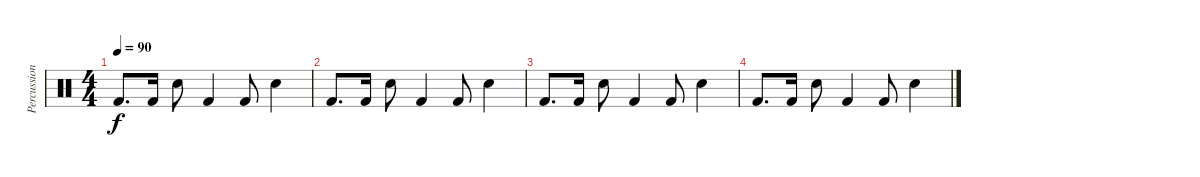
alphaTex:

\track ("Percussion" "Percussion") {instrument percussion}
\staff {score}
\articulation defaults
\ts (4 4)
\tempo 90
\clef neutral
\ks c "Kick (hit) 2".8{d dy f} "Kick (hit) 2".16 "Snare (hit) 2".8 "Kick (hit) 2".4 "Kick (hit) 2".8 "Snare (hit) 2".4
|
"Kick (hit) 2".8{d} "Kick (hit) 2".16 "Snare (hit) 2".8 "Kick (hit) 2".4 "Kick (hit) 2".8 "Snare (hit) 2".4 |
"Kick (hit) 2".8{d} "Kick (hit) 2".16 "Snare (hit) 2".8 "Kick (hit) 2".4 "Kick (hit) 2".8 "Snare (hit) 2".4 |
"Kick (hit) 2".8{d} "Kick (hit) 2".16 "Snare (hit) 2".8 "Kick (hit) 2".4 "Kick (hit) 2".8 "Snare (hit) 2".4
